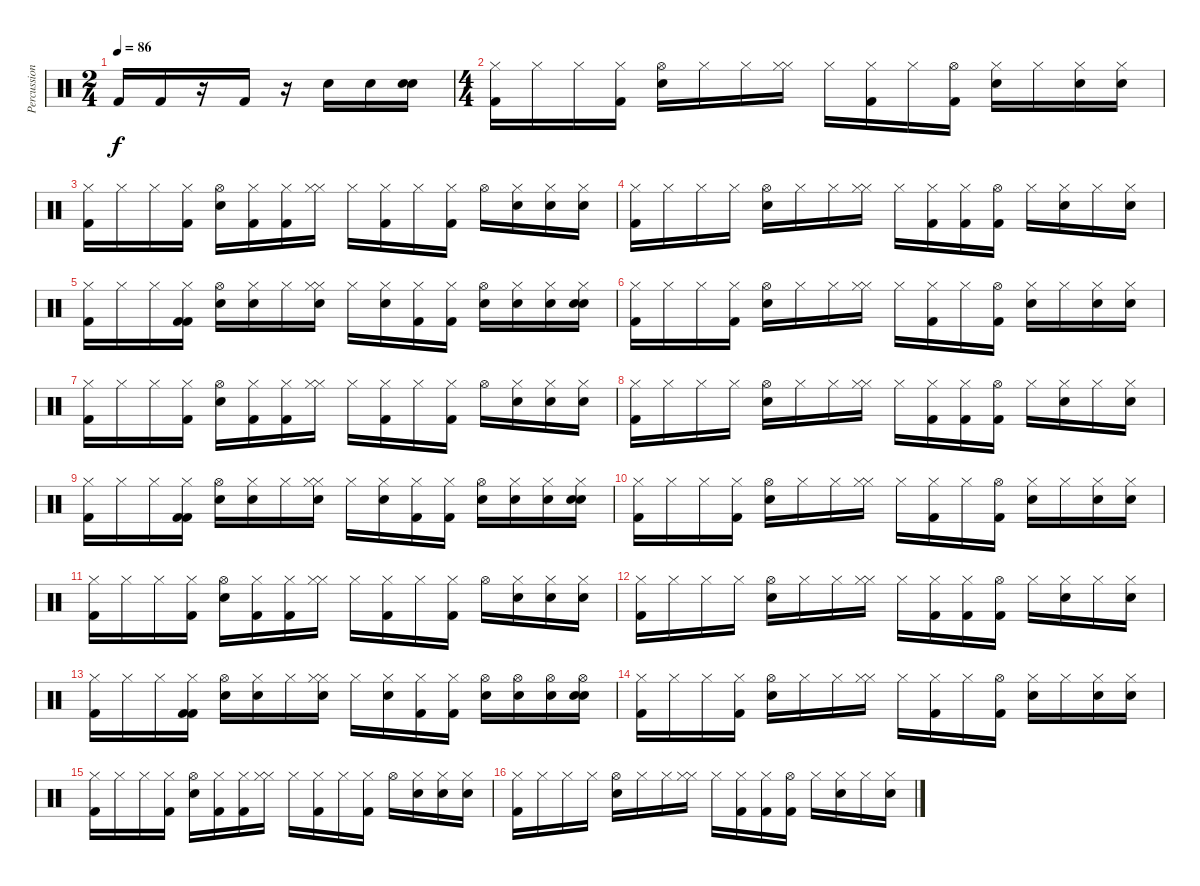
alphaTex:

\track ("Percussion" "Percussion") {instrument percussion}
\staff {score}
\articulation defaults
\ts (2 4)
\tempo 86
\clef neutral
\ks c "Kick (hit) 2".16{dy f} "Kick (hit) 2".16
r.16 "Kick (hit) 2".16 r.16 "Electric Snare (hit)".16 "Electric Snare (hit)".16 ("Electric Snare (hit)" "Electric Snare (hit)").16 |
\ts (4 4)
("Hi-Hat (closed)" "Kick (hit) 2").16 "Hi-Hat (closed)".16 "Hi-Hat (closed)".16 ("Hi-Hat (closed)" "Kick (hit) 2").16 ("Hi-Hat (open)" "Electric Snare (hit)").16 "Hi-Hat (closed)".16 "Hi-Hat (closed)".16 ("Hi-Hat (closed)" "Hi-Hat (closed)").16 "Hi-Hat (closed)".16 ("Hi-Hat (closed)" "Kick (hit) 2").16 "Hi-Hat (closed)".16 ("Hi-Hat (open)" "Kick (hit) 2").16 ("Hi-Hat (closed)" "Electric Snare (hit)").16 "Hi-Hat (closed)".16 ("Hi-Hat (closed)" "Electric Snare (hit)").16 ("Hi-Hat (closed)" "Electric Snare (hit)").16 |
("Hi-Hat (closed)" "Kick (hit) 2").16 "Hi-Hat (closed)".16 "Hi-Hat (closed)".16 ("Hi-Hat (closed)" "Kick (hit) 2").16 ("Hi-Hat (open)" "Electric Snare (hit)").16 ("Hi-Hat (closed)" "Kick (hit) 2").16 ("Hi-Hat (closed)" "Kick (hit) 2").16 ("Hi-Hat (closed)" "Hi-Hat (closed)").16 "Hi-Hat (closed)".16 ("Hi-Hat (closed)" "Kick (hit) 2").16 "Hi-Hat (closed)".16 ("Hi-Hat (closed)" "Kick (hit) 2").16 "Hi-Hat (open)".16 ("Hi-Hat (closed)" "Electric Snare (hit)").16 ("Hi-Hat (closed)" "Electric Snare (hit)").16 ("Hi-Hat (closed)" "Electric Snare (hit)").16 |
("Hi-Hat (closed)" "Kick (hit) 2").16 "Hi-Hat (closed)".16 "Hi-Hat (closed)".16 "Hi-Hat (closed)".16 ("Hi-Hat (open)" "Electric Snare (hit)").16 "Hi-Hat (closed)".16 "Hi-Hat (closed)".16 ("Hi-Hat (closed)" "Hi-Hat (closed)").16 "Hi-Hat (closed)".16 ("Hi-Hat (closed)" "Kick (hit) 2").16 ("Hi-Hat (closed)" "Kick (hit) 2").16 ("Hi-Hat (open)" "Kick (hit) 2").16 "Hi-Hat (closed)".16 ("Hi-Hat (closed)" "Electric Snare (hit)").16 "Hi-Hat (closed)".16 ("Hi-Hat (closed)" "Electric Snare (hit)").16 |
("Hi-Hat (closed)" "Kick (hit) 2").16 "Hi-Hat (closed)".16 "Hi-Hat (closed)".16 ("Hi-Hat (closed)" "Kick (hit) 2" "Kick (hit) 2").16 ("Hi-Hat (open)" "Electric Snare (hit)").16 ("Hi-Hat (closed)" "Electric Snare (hit)").16 "Hi-Hat (closed)".16 ("Hi-Hat (closed)" "Electric Snare (hit)" "Hi-Hat (closed)").16 "Hi-Hat (closed)".16 ("Hi-Hat (closed)" "Electric Snare (hit)").16 ("Hi-Hat (closed)" "Kick (hit) 2").16 ("Hi-Hat (closed)" "Kick (hit) 2").16 ("Hi-Hat (open)" "Electric Snare (hit)").16 ("Hi-Hat (closed)" "Electric Snare (hit)").16 ("Hi-Hat (closed)" "Electric Snare (hit)").16 ("Hi-Hat (closed)" "Electric Snare (hit)" "Electric Snare (hit)").16 |
("Hi-Hat (closed)" "Kick (hit) 2").16 "Hi-Hat (closed)".16 "Hi-Hat (closed)".16 ("Hi-Hat (closed)" "Kick (hit) 2").16 ("Hi-Hat (open)" "Electric Snare (hit)").16 "Hi-Hat (closed)".16 "Hi-Hat (closed)".16 ("Hi-Hat (closed)" "Hi-Hat (closed)").16 "Hi-Hat (closed)".16 ("Hi-Hat (closed)" "Kick (hit) 2").16 "Hi-Hat (closed)".16 ("Hi-Hat (open)" "Kick (hit) 2").16 ("Hi-Hat (closed)" "Electric Snare (hit)").16 "Hi-Hat (closed)".16 ("Hi-Hat (closed)" "Electric Snare (hit)").16 ("Hi-Hat (closed)" "Electric Snare (hit)").16 |
("Hi-Hat (closed)" "Kick (hit) 2").16 "Hi-Hat (closed)".16 "Hi-Hat (closed)".16 ("Hi-Hat (closed)" "Kick (hit) 2").16 ("Hi-Hat (open)" "Electric Snare (hit)").16 ("Hi-Hat (closed)" "Kick (hit) 2").16 ("Hi-Hat (closed)" "Kick (hit) 2").16 ("Hi-Hat (closed)" "Hi-Hat (closed)").16 "Hi-Hat (closed)".16 ("Hi-Hat (closed)" "Kick (hit) 2").16 "Hi-Hat (closed)".16 ("Hi-Hat (closed)" "Kick (hit) 2").16 "Hi-Hat (open)".16 ("Hi-Hat (closed)" "Electric Snare (hit)").16 ("Hi-Hat (closed)" "Electric Snare (hit)").16 ("Hi-Hat (closed)" "Electric Snare (hit)").16 |
("Hi-Hat (closed)" "Kick (hit) 2").16 "Hi-Hat (closed)".16 "Hi-Hat (closed)".16 "Hi-Hat (closed)".16 ("Hi-Hat (open)" "Electric Snare (hit)").16 "Hi-Hat (closed)".16 "Hi-Hat (closed)".16 ("Hi-Hat (closed)" "Hi-Hat (closed)").16 "Hi-Hat (closed)".16 ("Hi-Hat (closed)" "Kick (hit) 2").16 ("Hi-Hat (closed)" "Kick (hit) 2").16 ("Hi-Hat (open)" "Kick (hit) 2").16 "Hi-Hat (closed)".16 ("Hi-Hat (closed)" "Electric Snare (hit)").16 "Hi-Hat (closed)".16 ("Hi-Hat (closed)" "Electric Snare (hit)").16 |
("Hi-Hat (closed)" "Kick (hit) 2").16 "Hi-Hat (closed)".16 "Hi-Hat (closed)".16 ("Hi-Hat (closed)" "Kick (hit) 2" "Kick (hit) 2").16 ("Hi-Hat (open)" "Electric Snare (hit)").16 ("Hi-Hat (closed)" "Electric Snare (hit)").16 "Hi-Hat (closed)".16 ("Hi-Hat (closed)" "Electric Snare (hit)" "Hi-Hat (closed)").16 "Hi-Hat (closed)".16 ("Hi-Hat (closed)" "Electric Snare (hit)").16 ("Hi-Hat (closed)" "Kick (hit) 2").16 ("Hi-Hat (closed)" "Kick (hit) 2").16 ("Hi-Hat (open)" "Electric Snare (hit)").16 ("Hi-Hat (closed)" "Electric Snare (hit)").16 ("Hi-Hat (closed)" "Electric Snare (hit)").16 ("Hi-Hat (closed)" "Electric Snare (hit)" "Electric Snare (hit)").16 |
("Hi-Hat (closed)" "Kick (hit) 2").16 "Hi-Hat (closed)".16 "Hi-Hat (closed)".16 ("Hi-Hat (closed)" "Kick (hit) 2").16 ("Hi-Hat (open)" "Electric Snare (hit)").16 "Hi-Hat (closed)".16 "Hi-Hat (closed)".16 ("Hi-Hat (closed)" "Hi-Hat (closed)").16 "Hi-Hat (closed)".16 ("Hi-Hat (closed)" "Kick (hit) 2").16 "Hi-Hat (closed)".16 ("Hi-Hat (open)" "Kick (hit) 2").16 ("Hi-Hat (closed)" "Electric Snare (hit)").16 "Hi-Hat (closed)".16 ("Hi-Hat (closed)" "Electric Snare (hit)").16 ("Hi-Hat (closed)" "Electric Snare (hit)").16 |
("Hi-Hat (closed)" "Kick (hit) 2").16 "Hi-Hat (closed)".16 "Hi-Hat (closed)".16 ("Hi-Hat (closed)" "Kick (hit) 2").16 ("Hi-Hat (open)" "Electric Snare (hit)").16 ("Hi-Hat (closed)" "Kick (hit) 2").16 ("Hi-Hat (closed)" "Kick (hit) 2").16 ("Hi-Hat (closed)" "Hi-Hat (closed)").16 "Hi-Hat (closed)".16 ("Hi-Hat (closed)" "Kick (hit) 2").16 "Hi-Hat (closed)".16 ("Hi-Hat (closed)" "Kick (hit) 2").16 "Hi-Hat (open)".16 ("Hi-Hat (closed)" "Electric Snare (hit)").16 ("Hi-Hat (closed)" "Electric Snare (hit)").16 ("Hi-Hat (closed)" "Electric Snare (hit)").16 |
("Hi-Hat (closed)" "Kick (hit) 2").16 "Hi-Hat (closed)".16 "Hi-Hat (closed)".16 "Hi-Hat (closed)".16 ("Hi-Hat (open)" "Electric Snare (hit)").16 "Hi-Hat (closed)".16 "Hi-Hat (closed)".16 ("Hi-Hat (closed)" "Hi-Hat (closed)").16 "Hi-Hat (closed)".16 ("Hi-Hat (closed)" "Kick (hit) 2").16 ("Hi-Hat (closed)" "Kick (hit) 2").16 ("Hi-Hat (open)" "Kick (hit) 2").16 "Hi-Hat (closed)".16 ("Hi-Hat (closed)" "Electric Snare (hit)").16 "Hi-Hat (closed)".16 ("Hi-Hat (closed)" "Electric Snare (hit)").16 |
("Hi-Hat (closed)" "Kick (hit) 2").16 "Hi-Hat (closed)".16 "Hi-Hat (closed)".16 ("Hi-Hat (closed)" "Kick (hit) 2" "Kick (hit) 2").16 ("Hi-Hat (open)" "Electric Snare (hit)").16 ("Hi-Hat (closed)" "Electric Snare (hit)").16 "Hi-Hat (closed)".16 ("Hi-Hat (closed)" "Electric Snare (hit)" "Hi-Hat (closed)").16 "Hi-Hat (closed)".16 ("Hi-Hat (closed)" "Electric Snare (hit)").16 ("Hi-Hat (closed)" "Kick (hit) 2").16 ("Hi-Hat (closed)" "Kick (hit) 2").16 ("Hi-Hat (open)" "Electric Snare (hit)").16 ("Hi-Hat (open)" "Electric Snare (hit)").16 ("Hi-Hat (open)" "Electric Snare (hit)").16 ("Hi-Hat (open)" "Electric Snare (hit)" "Electric Snare (hit)").16 |
("Hi-Hat (closed)" "Kick (hit) 2").16 "Hi-Hat (closed)".16 "Hi-Hat (closed)".16 ("Hi-Hat (closed)" "Kick (hit) 2").16 ("Hi-Hat (open)" "Electric Snare (hit)").16 "Hi-Hat (closed)".16 "Hi-Hat (closed)".16 ("Hi-Hat (closed)" "Hi-Hat (closed)").16 "Hi-Hat (closed)".16 ("Hi-Hat (closed)" "Kick (hit) 2").16 "Hi-Hat (closed)".16 ("Hi-Hat (open)" "Kick (hit) 2").16 ("Hi-Hat (closed)" "Electric Snare (hit)").16 "Hi-Hat (closed)".16 ("Hi-Hat (closed)" "Electric Snare (hit)").16 ("Hi-Hat (closed)" "Electric Snare (hit)").16 |
("Hi-Hat (closed)" "Kick (hit) 2").16 "Hi-Hat (closed)".16 "Hi-Hat (closed)".16 ("Hi-Hat (closed)" "Kick (hit) 2").16 ("Hi-Hat (open)" "Electric Snare (hit)").16 ("Hi-Hat (closed)" "Kick (hit) 2").16 ("Hi-Hat (closed)" "Kick (hit) 2").16 ("Hi-Hat (closed)" "Hi-Hat (closed)").16 "Hi-Hat (closed)".16 ("Hi-Hat (closed)" "Kick (hit) 2").16 "Hi-Hat (closed)".16 ("Hi-Hat (closed)" "Kick (hit) 2").16 "Hi-Hat (open)".16 ("Hi-Hat (closed)" "Electric Snare (hit)").16 ("Hi-Hat (closed)" "Electric Snare (hit)").16 ("Hi-Hat (closed)" "Electric Snare (hit)").16 |
("Hi-Hat (closed)" "Kick (hit) 2").16 "Hi-Hat (closed)".16 "Hi-Hat (closed)".16 "Hi-Hat (closed)".16 ("Hi-Hat (open)" "Electric Snare (hit)").16 "Hi-Hat (closed)".16 "Hi-Hat (closed)".16 ("Hi-Hat (closed)" "Hi-Hat (closed)").16 "Hi-Hat (closed)".16 ("Hi-Hat (closed)" "Kick (hit) 2").16 ("Hi-Hat (closed)" "Kick (hit) 2").16 ("Hi-Hat (open)" "Kick (hit) 2").16 "Hi-Hat (closed)".16 ("Hi-Hat (closed)" "Electric Snare (hit)").16 "Hi-Hat (closed)".16 ("Hi-Hat (closed)" "Electric Snare (hit)").16
